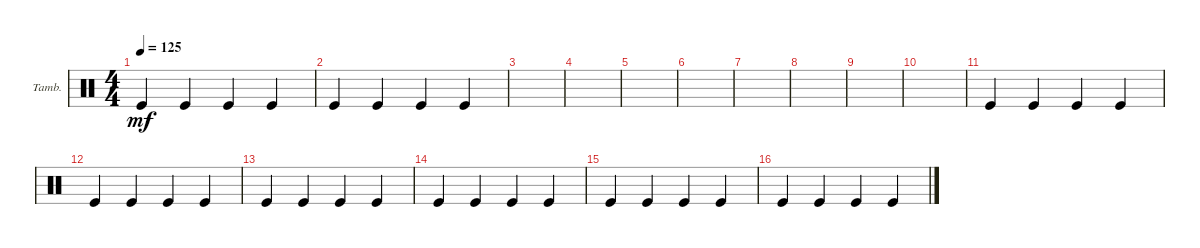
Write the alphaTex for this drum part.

\defaultSystemsLayout 4
\bracketExtendMode groupsimilarinstruments
\firstSystemTrackNameOrientation horizontal
\otherSystemsTrackNameOrientation horizontal
\track ("Tambourine" "Tamb.") {instrument percussion}
\staff {score}
\articulation defaults
\ts (4 4)
\tempo 125
\clef neutral
\ks c "Kick (hit)".4{dy mf} "Kick (hit)".4 "Kick (hit)".4 "Kick (hit)".4
|
"Kick (hit)".4 "Kick (hit)".4 "Kick (hit)".4 "Kick (hit)".4 |
|
|
|
|
|
|
|
|
"Kick (hit)".4 "Kick (hit)".4 "Kick (hit)".4 "Kick (hit)".4 |
"Kick (hit)".4 "Kick (hit)".4 "Kick (hit)".4 "Kick (hit)".4 |
"Kick (hit)".4 "Kick (hit)".4 "Kick (hit)".4 "Kick (hit)".4 |
"Kick (hit)".4 "Kick (hit)".4 "Kick (hit)".4 "Kick (hit)".4 |
"Kick (hit)".4 "Kick (hit)".4 "Kick (hit)".4 "Kick (hit)".4 |
"Kick (hit)".4 "Kick (hit)".4 "Kick (hit)".4 "Kick (hit)".4
